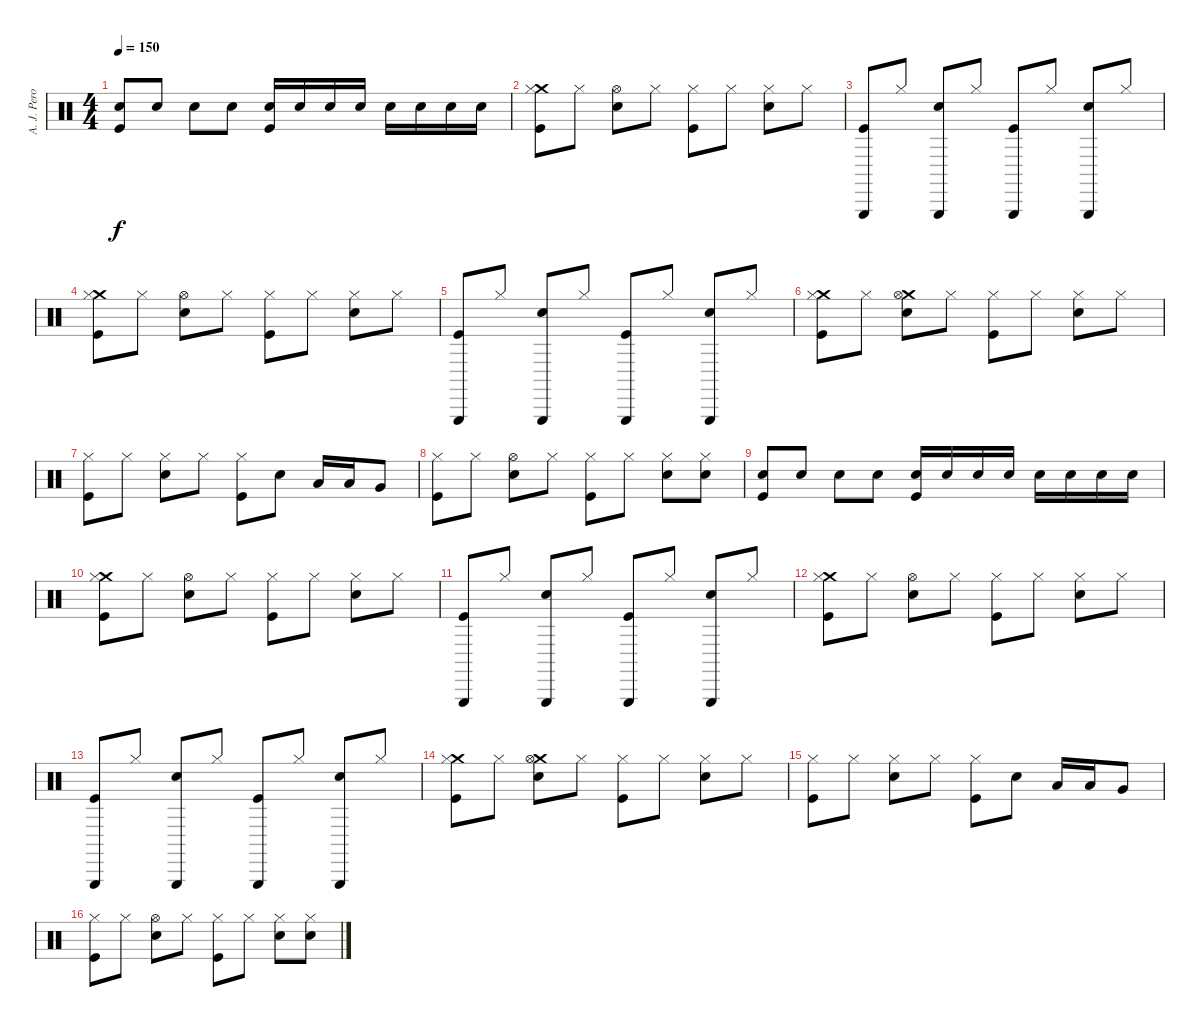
\track ("A. J. Pero - Drums" "A. J. Pero") {instrument percussion}
\staff {score}
\articulation defaults
\ts (4 4)
\tempo 150
\clef neutral
\ks c
("Snare (hit) 2" "Kick (hit)").8{dy f} "Snare (hit) 2".8 "Snare (hit) 2".8 "Snare (hit) 2".8 ("Snare (hit) 2" "Kick (hit)").16 "Snare (hit) 2".16 "Snare (hit) 2".16 "Snare (hit) 2".16 "Snare (hit) 2".16 "Snare (hit) 2".16 "Snare (hit) 2".16 "Snare (hit) 2".16 |
("Crash medium (hit)" "Hi-Hat (closed)" "Kick (hit)").8 "Hi-Hat (closed)".8 ("Hi-Hat (open)" "Snare (hit) 2").8 "Hi-Hat (closed)".8 ("Hi-Hat (closed)" "Kick (hit)").8 "Hi-Hat (closed)".8 ("Hi-Hat (closed)" "Snare (hit) 2").8 "Hi-Hat (closed)".8 |
("Triangle (hit)" "Kick (hit)").8 "Hi-Hat (closed)".8 ("Triangle (hit)" "Snare (hit) 2").8 "Hi-Hat (closed)".8 ("Triangle (hit)" "Kick (hit)").8 "Hi-Hat (closed)".8 ("Triangle (hit)" "Snare (hit) 2").8 "Hi-Hat (closed)".8 |
("Crash medium (hit)" "Hi-Hat (closed)" "Kick (hit)").8 "Hi-Hat (closed)".8 ("Hi-Hat (open)" "Snare (hit) 2").8 "Hi-Hat (closed)".8 ("Hi-Hat (closed)" "Kick (hit)").8 "Hi-Hat (closed)".8 ("Hi-Hat (closed)" "Snare (hit) 2").8 "Hi-Hat (closed)".8 |
("Triangle (hit)" "Kick (hit)").8 "Hi-Hat (closed)".8 ("Triangle (hit)" "Snare (hit) 2").8 "Hi-Hat (closed)".8 ("Triangle (hit)" "Kick (hit)").8 "Hi-Hat (closed)".8 ("Triangle (hit)" "Snare (hit) 2").8 "Hi-Hat (closed)".8 |
("Crash medium (hit)" "Hi-Hat (closed)" "Kick (hit)").8 "Hi-Hat (closed)".8 ("Crash medium (hit)" "Hi-Hat (open)" "Snare (hit) 2").8 "Hi-Hat (closed)".8 ("Hi-Hat (closed)" "Kick (hit)").8 "Hi-Hat (closed)".8 ("Hi-Hat (closed)" "Snare (hit) 2").8 "Hi-Hat (closed)".8 |
("Hi-Hat (closed)" "Kick (hit)").8 "Hi-Hat (closed)".8 ("Hi-Hat (closed)" "Snare (hit) 2").8 "Hi-Hat (closed)".8 ("Hi-Hat (closed)" "Kick (hit)").8 "Snare (hit) 2".8 "Low Floor Tom (hit)".16 "Low Floor Tom (hit)".16 "Very Low Tom (hit)".8 |
("Hi-Hat (closed)" "Kick (hit)").8 "Hi-Hat (closed)".8 ("Hi-Hat (open)" "Snare (hit) 2").8 "Hi-Hat (closed)".8 ("Hi-Hat (closed)" "Kick (hit)").8 "Hi-Hat (closed)".8 ("Hi-Hat (closed)" "Snare (hit) 2").8 ("Hi-Hat (closed)" "Snare (hit) 2").8 |
("Snare (hit) 2" "Kick (hit)").8 "Snare (hit) 2".8 "Snare (hit) 2".8 "Snare (hit) 2".8 ("Snare (hit) 2" "Kick (hit)").16 "Snare (hit) 2".16 "Snare (hit) 2".16 "Snare (hit) 2".16 "Snare (hit) 2".16 "Snare (hit) 2".16 "Snare (hit) 2".16 "Snare (hit) 2".16 |
("Crash medium (hit)" "Hi-Hat (closed)" "Kick (hit)").8 "Hi-Hat (closed)".8 ("Hi-Hat (open)" "Snare (hit) 2").8 "Hi-Hat (closed)".8 ("Hi-Hat (closed)" "Kick (hit)").8 "Hi-Hat (closed)".8 ("Hi-Hat (closed)" "Snare (hit) 2").8 "Hi-Hat (closed)".8 |
("Triangle (hit)" "Kick (hit)").8 "Hi-Hat (closed)".8 ("Triangle (hit)" "Snare (hit) 2").8 "Hi-Hat (closed)".8 ("Triangle (hit)" "Kick (hit)").8 "Hi-Hat (closed)".8 ("Triangle (hit)" "Snare (hit) 2").8 "Hi-Hat (closed)".8 |
("Crash medium (hit)" "Hi-Hat (closed)" "Kick (hit)").8 "Hi-Hat (closed)".8 ("Hi-Hat (open)" "Snare (hit) 2").8 "Hi-Hat (closed)".8 ("Hi-Hat (closed)" "Kick (hit)").8 "Hi-Hat (closed)".8 ("Hi-Hat (closed)" "Snare (hit) 2").8 "Hi-Hat (closed)".8 |
("Triangle (hit)" "Kick (hit)").8 "Hi-Hat (closed)".8 ("Triangle (hit)" "Snare (hit) 2").8 "Hi-Hat (closed)".8 ("Triangle (hit)" "Kick (hit)").8 "Hi-Hat (closed)".8 ("Triangle (hit)" "Snare (hit) 2").8 "Hi-Hat (closed)".8 |
("Crash medium (hit)" "Hi-Hat (closed)" "Kick (hit)").8 "Hi-Hat (closed)".8 ("Crash medium (hit)" "Hi-Hat (open)" "Snare (hit) 2").8 "Hi-Hat (closed)".8 ("Hi-Hat (closed)" "Kick (hit)").8 "Hi-Hat (closed)".8 ("Hi-Hat (closed)" "Snare (hit) 2").8 "Hi-Hat (closed)".8 |
("Hi-Hat (closed)" "Kick (hit)").8 "Hi-Hat (closed)".8 ("Hi-Hat (closed)" "Snare (hit) 2").8 "Hi-Hat (closed)".8 ("Hi-Hat (closed)" "Kick (hit)").8 "Snare (hit) 2".8 "Low Floor Tom (hit)".16 "Low Floor Tom (hit)".16 "Very Low Tom (hit)".8 |
("Hi-Hat (closed)" "Kick (hit)").8 "Hi-Hat (closed)".8 ("Hi-Hat (open)" "Snare (hit) 2").8 "Hi-Hat (closed)".8 ("Hi-Hat (closed)" "Kick (hit)").8 "Hi-Hat (closed)".8 ("Hi-Hat (closed)" "Snare (hit) 2").8 ("Hi-Hat (closed)" "Snare (hit) 2").8
